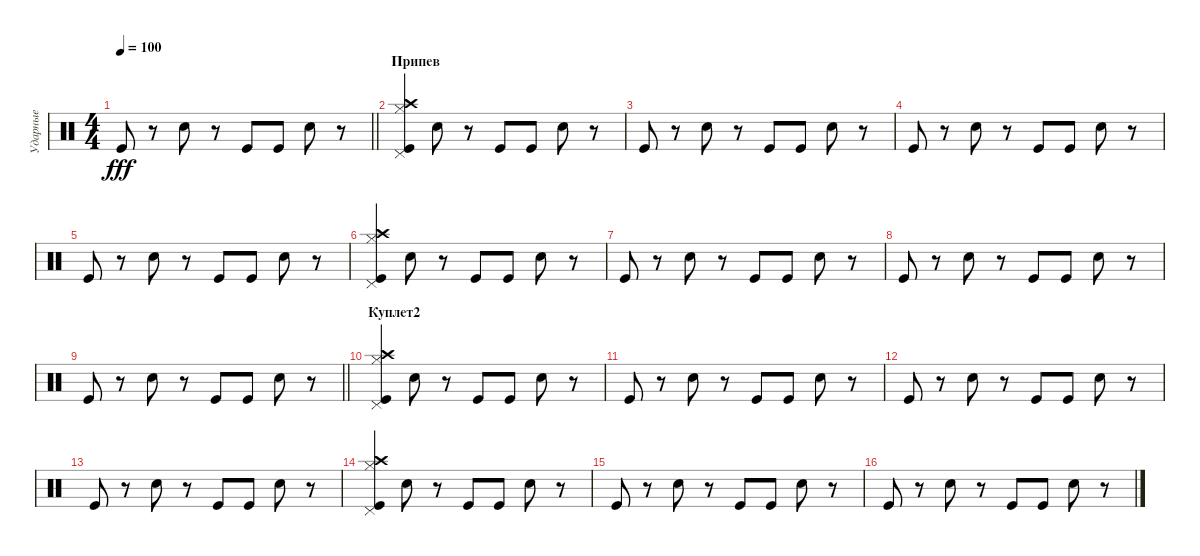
\track ("Ударные" "Ударные") {instrument percussion}
\staff {score}
\articulation defaults
\ts (4 4)
\tempo 100
\clef neutral
\barLineRight lightlight
\ks c "Kick (hit)".8{dy fff}
r.8 "Electric Snare (hit)".8 r.8 "Kick (hit)".8 "Kick (hit)".8 "Electric Snare (hit)".8 r.8 |
\section ("" "Припев")
("Crash high (hit)" "Hi-Hat (closed)" "Pedal Hi-Hat (hit)" "Kick (hit)").4 "Electric Snare (hit)".8 r.8 "Kick (hit)".8 "Kick (hit)".8 "Electric Snare (hit)".8 r.8 |
"Kick (hit)".8 r.8 "Electric Snare (hit)".8 r.8 "Kick (hit)".8 "Kick (hit)".8 "Electric Snare (hit)".8 r.8 |
"Kick (hit)".8 r.8 "Electric Snare (hit)".8 r.8 "Kick (hit)".8 "Kick (hit)".8 "Electric Snare (hit)".8 r.8 |
"Kick (hit)".8 r.8 "Electric Snare (hit)".8 r.8 "Kick (hit)".8 "Kick (hit)".8 "Electric Snare (hit)".8 r.8 |
("Crash high (hit)" "Hi-Hat (closed)" "Pedal Hi-Hat (hit)" "Kick (hit)").4 "Electric Snare (hit)".8 r.8 "Kick (hit)".8 "Kick (hit)".8 "Electric Snare (hit)".8 r.8 |
"Kick (hit)".8 r.8 "Electric Snare (hit)".8 r.8 "Kick (hit)".8 "Kick (hit)".8 "Electric Snare (hit)".8 r.8 |
"Kick (hit)".8 r.8 "Electric Snare (hit)".8 r.8 "Kick (hit)".8 "Kick (hit)".8 "Electric Snare (hit)".8 r.8 |
\barLineRight lightlight "Kick (hit)".8
r.8 "Electric Snare (hit)".8 r.8 "Kick (hit)".8 "Kick (hit)".8 "Electric Snare (hit)".8 r.8 |
\section ("" "Куплет2")
("Crash high (hit)" "Hi-Hat (closed)" "Pedal Hi-Hat (hit)" "Kick (hit)").4 "Electric Snare (hit)".8 r.8 "Kick (hit)".8 "Kick (hit)".8 "Electric Snare (hit)".8 r.8 |
"Kick (hit)".8 r.8 "Electric Snare (hit)".8 r.8 "Kick (hit)".8 "Kick (hit)".8 "Electric Snare (hit)".8 r.8 |
"Kick (hit)".8 r.8 "Electric Snare (hit)".8 r.8 "Kick (hit)".8 "Kick (hit)".8 "Electric Snare (hit)".8 r.8 |
"Kick (hit)".8 r.8 "Electric Snare (hit)".8 r.8 "Kick (hit)".8 "Kick (hit)".8 "Electric Snare (hit)".8 r.8 |
("Crash high (hit)" "Hi-Hat (closed)" "Pedal Hi-Hat (hit)" "Kick (hit)").4 "Electric Snare (hit)".8 r.8 "Kick (hit)".8 "Kick (hit)".8 "Electric Snare (hit)".8 r.8 |
"Kick (hit)".8 r.8 "Electric Snare (hit)".8 r.8 "Kick (hit)".8 "Kick (hit)".8 "Electric Snare (hit)".8 r.8 |
"Kick (hit)".8 r.8 "Electric Snare (hit)".8 r.8 "Kick (hit)".8 "Kick (hit)".8 "Electric Snare (hit)".8 r.8
